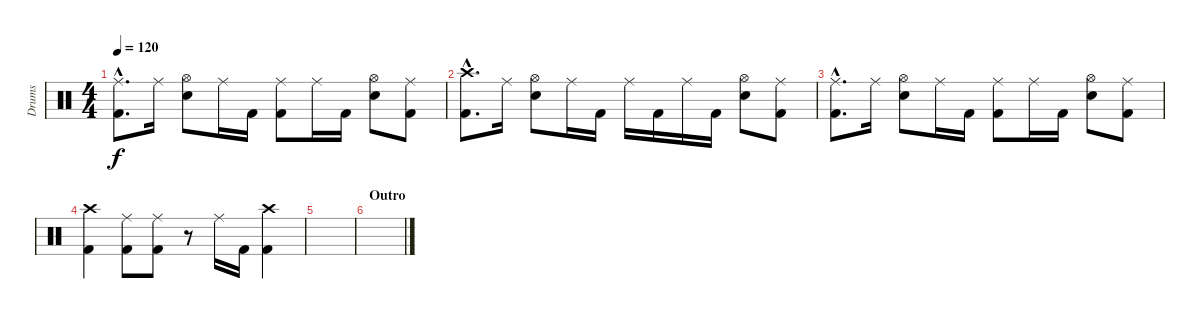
\track ("Drums" "Drums") {instrument percussion}
\staff {score}
\articulation defaults
\ts (4 4)
\tempo 120
\clef neutral
\ks c
("Ride (middle)"{hac} "Kick (hit) 2"{hac}).8{d dy f} "Ride (middle)".16 ("Hi-Hat (open)" "Electric Snare (hit)").8 "Ride (middle)".16 "Kick (hit) 2".16 ("Ride (middle)" "Kick (hit) 2").8 "Ride (middle)".16 "Kick (hit) 2".16 ("Hi-Hat (open)" "Electric Snare (hit)").8 ("Ride (middle)" "Kick (hit) 2").8 |
("Crash high (hit)"{hac} "Kick (hit) 2"{hac}).8{d} "Ride (middle)".16 ("Hi-Hat (open)" "Electric Snare (hit)").8 "Ride (middle)".16 "Kick (hit) 2".16 "Ride (middle)".16 "Kick (hit) 2".16 "Ride (middle)".16 "Kick (hit) 2".16 ("Hi-Hat (open)" "Electric Snare (hit)").8 ("Ride (middle)" "Kick (hit) 2").8 |
("Ride (middle)"{hac} "Kick (hit) 2"{hac}).8{d} "Ride (middle)".16 ("Hi-Hat (open)" "Electric Snare (hit)").8 "Ride (middle)".16 "Kick (hit) 2".16 ("Ride (middle)" "Kick (hit) 2").8 "Ride (middle)".16 "Kick (hit) 2".16 ("Hi-Hat (open)" "Electric Snare (hit)").8 ("Ride (middle)" "Kick (hit) 2").8 |
("Crash high (hit)" "Kick (hit) 2").4 ("Ride (middle)" "Kick (hit) 2").8 ("Ride (middle)" "Kick (hit) 2").8 r.8 "Ride (middle)".16 "Kick (hit) 2".16 ("Crash high (hit)" "Kick (hit) 2").4 |
|
\section ("" "Outro")
